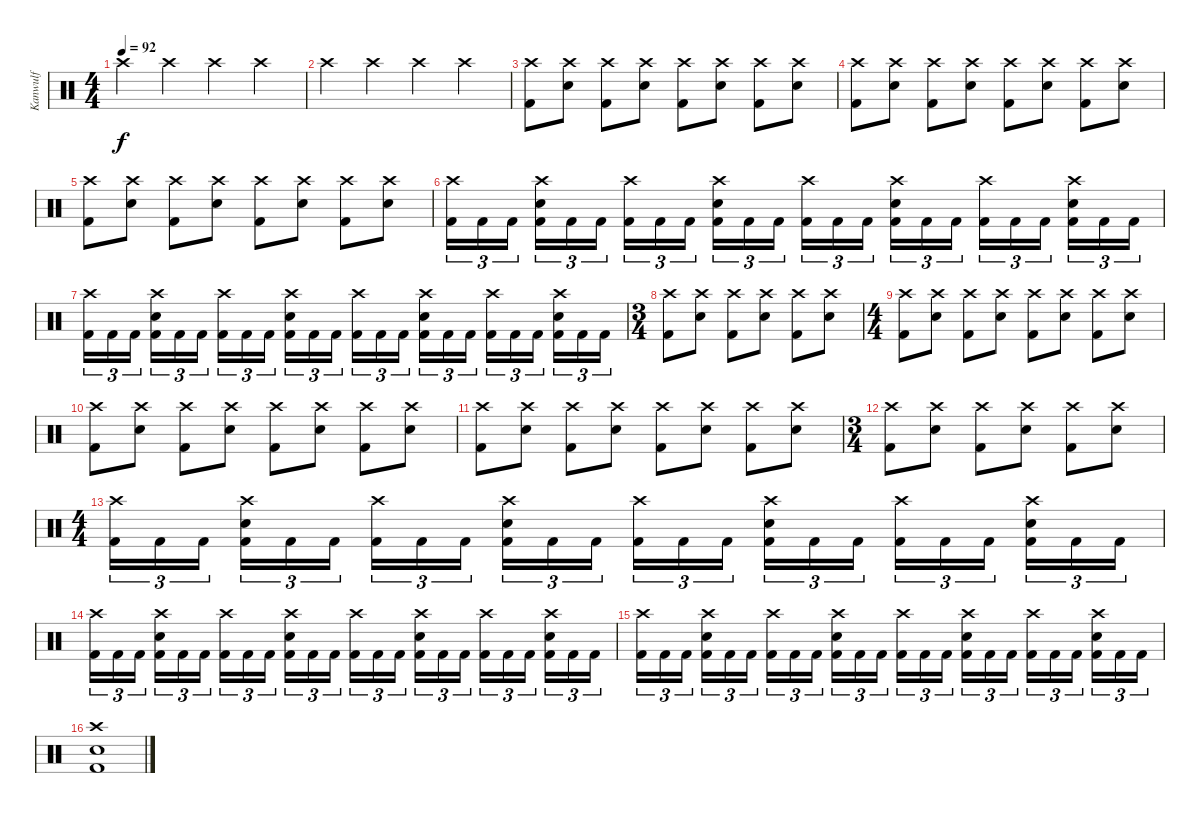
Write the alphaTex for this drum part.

\track ("Kanwulf" "Kanwulf") {instrument percussion}
\staff {score}
\articulation defaults
\ts (4 4)
\tempo 92
\clef neutral
\ks c "Crash high (hit)".4{dy f} "Crash high (hit)".4 "Crash high (hit)".4 "Crash high (hit)".4
|
"Crash high (hit)".4 "Crash high (hit)".4 "Crash high (hit)".4 "Crash high (hit)".4 |
("Crash high (hit)" "Kick (hit) 2").8 ("Crash high (hit)" "Electric Snare (hit)").8 ("Crash high (hit)" "Kick (hit) 2").8 ("Crash high (hit)" "Electric Snare (hit)").8 ("Crash high (hit)" "Kick (hit) 2").8 ("Crash high (hit)" "Electric Snare (hit)").8 ("Crash high (hit)" "Kick (hit) 2").8 ("Crash high (hit)" "Electric Snare (hit)").8 |
("Crash high (hit)" "Kick (hit) 2").8 ("Crash high (hit)" "Electric Snare (hit)").8 ("Crash high (hit)" "Kick (hit) 2").8 ("Crash high (hit)" "Electric Snare (hit)").8 ("Crash high (hit)" "Kick (hit) 2").8 ("Crash high (hit)" "Electric Snare (hit)").8 ("Crash high (hit)" "Kick (hit) 2").8 ("Crash high (hit)" "Electric Snare (hit)").8 |
("Crash high (hit)" "Kick (hit) 2").8 ("Crash high (hit)" "Electric Snare (hit)").8 ("Crash high (hit)" "Kick (hit) 2").8 ("Crash high (hit)" "Electric Snare (hit)").8 ("Crash high (hit)" "Kick (hit) 2").8 ("Crash high (hit)" "Electric Snare (hit)").8 ("Crash high (hit)" "Kick (hit) 2").8 ("Crash high (hit)" "Electric Snare (hit)").8 |
("Crash high (hit)" "Kick (hit) 2").16{tu (3 2)} "Kick (hit) 2".16{tu (3 2)} "Kick (hit) 2".16{tu (3 2)} ("Crash high (hit)" "Electric Snare (hit)" "Kick (hit) 2").16{tu (3 2)} "Kick (hit) 2".16{tu (3 2)} "Kick (hit) 2".16{tu (3 2)} ("Crash high (hit)" "Kick (hit) 2").16{tu (3 2)} "Kick (hit) 2".16{tu (3 2)} "Kick (hit) 2".16{tu (3 2)} ("Crash high (hit)" "Electric Snare (hit)" "Kick (hit) 2").16{tu (3 2)} "Kick (hit) 2".16{tu (3 2)} "Kick (hit) 2".16{tu (3 2)} ("Crash high (hit)" "Kick (hit) 2").16{tu (3 2)} "Kick (hit) 2".16{tu (3 2)} "Kick (hit) 2".16{tu (3 2)} ("Crash high (hit)" "Electric Snare (hit)" "Kick (hit) 2").16{tu (3 2)} "Kick (hit) 2".16{tu (3 2)} "Kick (hit) 2".16{tu (3 2)} ("Crash high (hit)" "Kick (hit) 2").16{tu (3 2)} "Kick (hit) 2".16{tu (3 2)} "Kick (hit) 2".16{tu (3 2)} ("Crash high (hit)" "Electric Snare (hit)" "Kick (hit) 2").16{tu (3 2)} "Kick (hit) 2".16{tu (3 2)} "Kick (hit) 2".16{tu (3 2)} |
("Crash high (hit)" "Kick (hit) 2").16{tu (3 2)} "Kick (hit) 2".16{tu (3 2)} "Kick (hit) 2".16{tu (3 2)} ("Crash high (hit)" "Electric Snare (hit)" "Kick (hit) 2").16{tu (3 2)} "Kick (hit) 2".16{tu (3 2)} "Kick (hit) 2".16{tu (3 2)} ("Crash high (hit)" "Kick (hit) 2").16{tu (3 2)} "Kick (hit) 2".16{tu (3 2)} "Kick (hit) 2".16{tu (3 2)} ("Crash high (hit)" "Electric Snare (hit)" "Kick (hit) 2").16{tu (3 2)} "Kick (hit) 2".16{tu (3 2)} "Kick (hit) 2".16{tu (3 2)} ("Crash high (hit)" "Kick (hit) 2").16{tu (3 2)} "Kick (hit) 2".16{tu (3 2)} "Kick (hit) 2".16{tu (3 2)} ("Crash high (hit)" "Electric Snare (hit)" "Kick (hit) 2").16{tu (3 2)} "Kick (hit) 2".16{tu (3 2)} "Kick (hit) 2".16{tu (3 2)} ("Crash high (hit)" "Kick (hit) 2").16{tu (3 2)} "Kick (hit) 2".16{tu (3 2)} "Kick (hit) 2".16{tu (3 2)} ("Crash high (hit)" "Electric Snare (hit)" "Kick (hit) 2").16{tu (3 2)} "Kick (hit) 2".16{tu (3 2)} "Kick (hit) 2".16{tu (3 2)} |
\ts (3 4)
("Crash high (hit)" "Kick (hit) 2").8 ("Crash high (hit)" "Electric Snare (hit)").8 ("Crash high (hit)" "Kick (hit) 2").8 ("Crash high (hit)" "Electric Snare (hit)").8 ("Crash high (hit)" "Kick (hit) 2").8 ("Crash high (hit)" "Electric Snare (hit)").8 |
\ts (4 4)
("Crash high (hit)" "Kick (hit) 2").8 ("Crash high (hit)" "Electric Snare (hit)").8 ("Crash high (hit)" "Kick (hit) 2").8 ("Crash high (hit)" "Electric Snare (hit)").8 ("Crash high (hit)" "Kick (hit) 2").8 ("Crash high (hit)" "Electric Snare (hit)").8 ("Crash high (hit)" "Kick (hit) 2").8 ("Crash high (hit)" "Electric Snare (hit)").8 |
("Crash high (hit)" "Kick (hit) 2").8 ("Crash high (hit)" "Electric Snare (hit)").8 ("Crash high (hit)" "Kick (hit) 2").8 ("Crash high (hit)" "Electric Snare (hit)").8 ("Crash high (hit)" "Kick (hit) 2").8 ("Crash high (hit)" "Electric Snare (hit)").8 ("Crash high (hit)" "Kick (hit) 2").8 ("Crash high (hit)" "Electric Snare (hit)").8 |
("Crash high (hit)" "Kick (hit) 2").8 ("Crash high (hit)" "Electric Snare (hit)").8 ("Crash high (hit)" "Kick (hit) 2").8 ("Crash high (hit)" "Electric Snare (hit)").8 ("Crash high (hit)" "Kick (hit) 2").8 ("Crash high (hit)" "Electric Snare (hit)").8 ("Crash high (hit)" "Kick (hit) 2").8 ("Crash high (hit)" "Electric Snare (hit)").8 |
\ts (3 4)
("Crash high (hit)" "Kick (hit) 2").8 ("Crash high (hit)" "Electric Snare (hit)").8 ("Crash high (hit)" "Kick (hit) 2").8 ("Crash high (hit)" "Electric Snare (hit)").8 ("Crash high (hit)" "Kick (hit) 2").8 ("Crash high (hit)" "Electric Snare (hit)").8 |
\ts (4 4)
("Crash high (hit)" "Kick (hit) 2").16{tu (3 2)} "Kick (hit) 2".16{tu (3 2)} "Kick (hit) 2".16{tu (3 2)} ("Crash high (hit)" "Electric Snare (hit)" "Kick (hit) 2").16{tu (3 2)} "Kick (hit) 2".16{tu (3 2)} "Kick (hit) 2".16{tu (3 2)} ("Crash high (hit)" "Kick (hit) 2").16{tu (3 2)} "Kick (hit) 2".16{tu (3 2)} "Kick (hit) 2".16{tu (3 2)} ("Crash high (hit)" "Electric Snare (hit)" "Kick (hit) 2").16{tu (3 2)} "Kick (hit) 2".16{tu (3 2)} "Kick (hit) 2".16{tu (3 2)} ("Crash high (hit)" "Kick (hit) 2").16{tu (3 2)} "Kick (hit) 2".16{tu (3 2)} "Kick (hit) 2".16{tu (3 2)} ("Crash high (hit)" "Electric Snare (hit)" "Kick (hit) 2").16{tu (3 2)} "Kick (hit) 2".16{tu (3 2)} "Kick (hit) 2".16{tu (3 2)} ("Crash high (hit)" "Kick (hit) 2").16{tu (3 2)} "Kick (hit) 2".16{tu (3 2)} "Kick (hit) 2".16{tu (3 2)} ("Crash high (hit)" "Electric Snare (hit)" "Kick (hit) 2").16{tu (3 2)} "Kick (hit) 2".16{tu (3 2)} "Kick (hit) 2".16{tu (3 2)} |
("Crash high (hit)" "Kick (hit) 2").16{tu (3 2)} "Kick (hit) 2".16{tu (3 2)} "Kick (hit) 2".16{tu (3 2)} ("Crash high (hit)" "Electric Snare (hit)" "Kick (hit) 2").16{tu (3 2)} "Kick (hit) 2".16{tu (3 2)} "Kick (hit) 2".16{tu (3 2)} ("Crash high (hit)" "Kick (hit) 2").16{tu (3 2)} "Kick (hit) 2".16{tu (3 2)} "Kick (hit) 2".16{tu (3 2)} ("Crash high (hit)" "Electric Snare (hit)" "Kick (hit) 2").16{tu (3 2)} "Kick (hit) 2".16{tu (3 2)} "Kick (hit) 2".16{tu (3 2)} ("Crash high (hit)" "Kick (hit) 2").16{tu (3 2)} "Kick (hit) 2".16{tu (3 2)} "Kick (hit) 2".16{tu (3 2)} ("Crash high (hit)" "Electric Snare (hit)" "Kick (hit) 2").16{tu (3 2)} "Kick (hit) 2".16{tu (3 2)} "Kick (hit) 2".16{tu (3 2)} ("Crash high (hit)" "Kick (hit) 2").16{tu (3 2)} "Kick (hit) 2".16{tu (3 2)} "Kick (hit) 2".16{tu (3 2)} ("Crash high (hit)" "Electric Snare (hit)" "Kick (hit) 2").16{tu (3 2)} "Kick (hit) 2".16{tu (3 2)} "Kick (hit) 2".16{tu (3 2)} |
("Crash high (hit)" "Kick (hit) 2").16{tu (3 2)} "Kick (hit) 2".16{tu (3 2)} "Kick (hit) 2".16{tu (3 2)} ("Crash high (hit)" "Electric Snare (hit)" "Kick (hit) 2").16{tu (3 2)} "Kick (hit) 2".16{tu (3 2)} "Kick (hit) 2".16{tu (3 2)} ("Crash high (hit)" "Kick (hit) 2").16{tu (3 2)} "Kick (hit) 2".16{tu (3 2)} "Kick (hit) 2".16{tu (3 2)} ("Crash high (hit)" "Electric Snare (hit)" "Kick (hit) 2").16{tu (3 2)} "Kick (hit) 2".16{tu (3 2)} "Kick (hit) 2".16{tu (3 2)} ("Crash high (hit)" "Kick (hit) 2").16{tu (3 2)} "Kick (hit) 2".16{tu (3 2)} "Kick (hit) 2".16{tu (3 2)} ("Crash high (hit)" "Electric Snare (hit)" "Kick (hit) 2").16{tu (3 2)} "Kick (hit) 2".16{tu (3 2)} "Kick (hit) 2".16{tu (3 2)} ("Crash high (hit)" "Kick (hit) 2").16{tu (3 2)} "Kick (hit) 2".16{tu (3 2)} "Kick (hit) 2".16{tu (3 2)} ("Crash high (hit)" "Electric Snare (hit)" "Kick (hit) 2").16{tu (3 2)} "Kick (hit) 2".16{tu (3 2)} "Kick (hit) 2".16{tu (3 2)} |
("Crash high (hit)" "Electric Snare (hit)" "Kick (hit) 2").1
